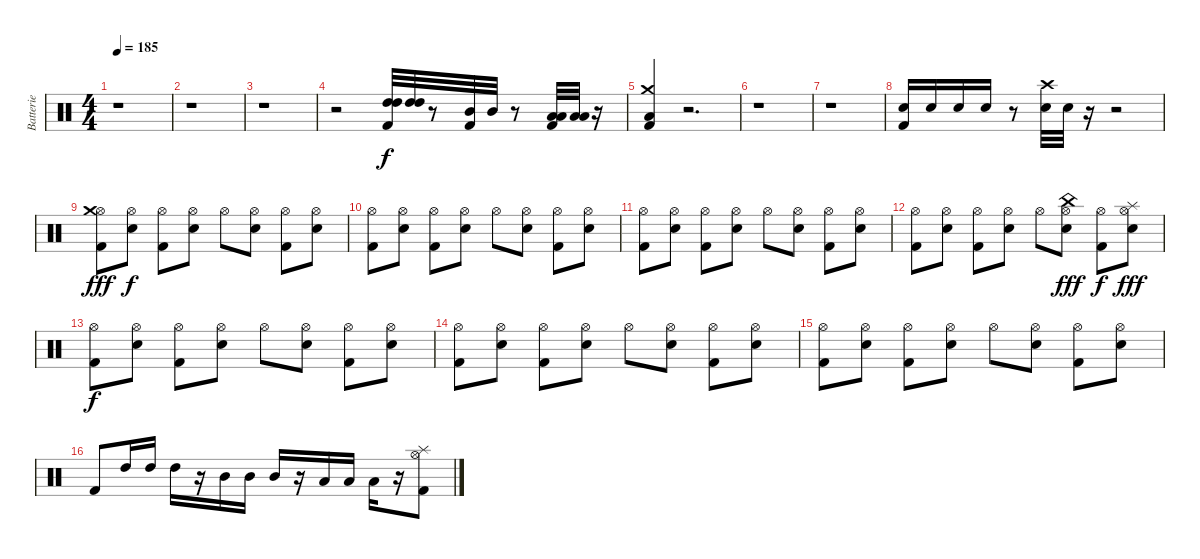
\track ("Batterie" "Batterie") {instrument percussion}
\staff {score}
\articulation defaults
\ts (4 4)
\tempo 185
\clef neutral
\ks c
r.1{dy f} |
r.1 |
r.1 |
r.2 ("High Tom (hit)" "High Tom (hit)" "Kick (hit) 2").32 ("High Tom (hit)" "High Tom (hit)").32 r.8 ("Mid Tom (hit)" "Kick (hit) 2").32 "Mid Tom (hit)".32 r.8 ("Low Tom (hit)" "Low Tom (hit)" "Kick (hit) 2").32 ("Low Tom (hit)" "Low Tom (hit)").32 r.16 |
("Crash medium (hit)" "Low Floor Tom (hit)" "Kick (hit) 2").4 r.2{d} |
r.1 |
r.1 |
("Electric Snare (hit)" "Kick (hit) 2").16 "Electric Snare (hit)".16 "Electric Snare (hit)".16 "Electric Snare (hit)".16 r.8 ("Crash high (hit)" "Snare (hit) 2").32 "Snare (hit) 2".32 r.16 r.2 |
("Hi-Hat (open)" "Crash medium (hit)" "Kick (hit) 2").8{dy fff} ("Hi-Hat (open)" "Electric Snare (hit)").8{dy f} ("Hi-Hat (open)" "Kick (hit) 2").8 ("Hi-Hat (open)" "Electric Snare (hit)").8 "Hi-Hat (open)".8 ("Hi-Hat (open)" "Electric Snare (hit)").8 ("Hi-Hat (open)" "Kick (hit) 2").8 ("Hi-Hat (open)" "Electric Snare (hit)").8 |
("Hi-Hat (open)" "Kick (hit) 2").8 ("Hi-Hat (open)" "Electric Snare (hit)").8 ("Hi-Hat (open)" "Kick (hit) 2").8 ("Hi-Hat (open)" "Electric Snare (hit)").8 "Hi-Hat (open)".8 ("Hi-Hat (open)" "Electric Snare (hit)").8 ("Hi-Hat (open)" "Kick (hit) 2").8 ("Hi-Hat (open)" "Electric Snare (hit)").8 |
("Hi-Hat (open)" "Kick (hit) 2").8 ("Hi-Hat (open)" "Electric Snare (hit)").8 ("Hi-Hat (open)" "Kick (hit) 2").8 ("Hi-Hat (open)" "Electric Snare (hit)").8 "Hi-Hat (open)".8 ("Hi-Hat (open)" "Electric Snare (hit)").8 ("Hi-Hat (open)" "Kick (hit) 2").8 ("Hi-Hat (open)" "Electric Snare (hit)").8 |
("Hi-Hat (open)" "Kick (hit) 2").8 ("Hi-Hat (open)" "Electric Snare (hit)").8 ("Hi-Hat (open)" "Kick (hit) 2").8 ("Hi-Hat (open)" "Electric Snare (hit)").8 "Hi-Hat (open)".8 ("Hi-Hat (open)" "China (hit)" "Electric Snare (hit)").8{dy fff} ("Hi-Hat (open)" "Kick (hit) 2").8{dy f} ("Hi-Hat (open)" "Splash (hit)" "Electric Snare (hit)").8{dy fff} |
("Hi-Hat (open)" "Kick (hit) 2").8{dy f} ("Hi-Hat (open)" "Electric Snare (hit)").8 ("Hi-Hat (open)" "Kick (hit) 2").8 ("Hi-Hat (open)" "Electric Snare (hit)").8 "Hi-Hat (open)".8 ("Hi-Hat (open)" "Electric Snare (hit)").8 ("Hi-Hat (open)" "Kick (hit) 2").8 ("Hi-Hat (open)" "Electric Snare (hit)").8 |
("Hi-Hat (open)" "Kick (hit) 2").8 ("Hi-Hat (open)" "Electric Snare (hit)").8 ("Hi-Hat (open)" "Kick (hit) 2").8 ("Hi-Hat (open)" "Electric Snare (hit)").8 "Hi-Hat (open)".8 ("Hi-Hat (open)" "Electric Snare (hit)").8 ("Hi-Hat (open)" "Kick (hit) 2").8 ("Hi-Hat (open)" "Electric Snare (hit)").8 |
("Hi-Hat (open)" "Kick (hit) 2").8 ("Hi-Hat (open)" "Electric Snare (hit)").8 ("Hi-Hat (open)" "Kick (hit) 2").8 ("Hi-Hat (open)" "Electric Snare (hit)").8 "Hi-Hat (open)".8 ("Hi-Hat (open)" "Electric Snare (hit)").8 ("Hi-Hat (open)" "Kick (hit) 2").8 ("Hi-Hat (open)" "Electric Snare (hit)").8 |
"Kick (hit) 2".8 "High Tom (hit)".16 "High Tom (hit)".16 "High Tom (hit)".16 r.16 "Mid Tom (hit)".16 "Mid Tom (hit)".16 "Mid Tom (hit)".16 r.16 "Low Tom (hit)".16 "Low Tom (hit)".16 "Low Tom (hit)".16 r.16 ("Splash (hit)" "Hi-Hat (open)" "Kick (hit) 2").8
